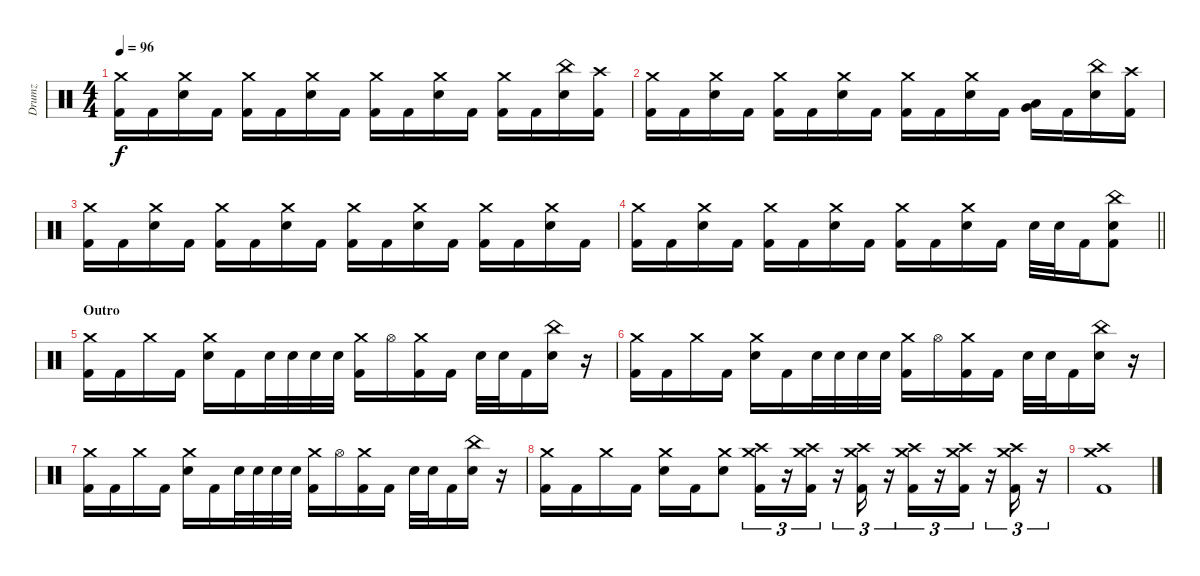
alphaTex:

\track ("Drumz" "Drumz") {instrument percussion}
\staff {score}
\articulation defaults
\ts (4 4)
\tempo 96
\clef neutral
\ks c
("Crash medium (hit)" "Kick (hit) 2").16{dy f} "Kick (hit) 2".16 ("Crash medium (hit)" "Electric Snare (hit)").16 "Kick (hit) 2".16 ("Crash medium (hit)" "Kick (hit) 2").16 "Kick (hit) 2".16 ("Crash medium (hit)" "Electric Snare (hit)").16 "Kick (hit) 2".16 ("Crash medium (hit)" "Kick (hit) 2").16 "Kick (hit) 2".16 ("Crash medium (hit)" "Electric Snare (hit)").16 "Kick (hit) 2".16 ("Crash medium (hit)" "Kick (hit) 2").16 "Kick (hit) 2".16 ("China (hit)" "Electric Snare (hit)").16 ("Crash high (hit)" "Kick (hit) 2").16 |
("Crash medium (hit)" "Kick (hit) 2").16 "Kick (hit) 2".16 ("Crash medium (hit)" "Electric Snare (hit)").16 "Kick (hit) 2".16 ("Crash medium (hit)" "Kick (hit) 2").16 "Kick (hit) 2".16 ("Crash medium (hit)" "Electric Snare (hit)").16 "Kick (hit) 2".16 ("Crash medium (hit)" "Kick (hit) 2").16 "Kick (hit) 2".16 ("Crash medium (hit)" "Electric Snare (hit)").16 "Kick (hit) 2".16 ("Very Low Tom (hit)" "Low Floor Tom (hit)").16 "Kick (hit) 2".16 ("China (hit)" "Electric Snare (hit)").16 ("Crash high (hit)" "Kick (hit) 2").16 |
("Crash medium (hit)" "Kick (hit) 2").16 "Kick (hit) 2".16 ("Crash medium (hit)" "Electric Snare (hit)").16 "Kick (hit) 2".16 ("Crash medium (hit)" "Kick (hit) 2").16 "Kick (hit) 2".16 ("Crash medium (hit)" "Electric Snare (hit)").16 "Kick (hit) 2".16 ("Crash medium (hit)" "Kick (hit) 2").16 "Kick (hit) 2".16 ("Crash medium (hit)" "Electric Snare (hit)").16 "Kick (hit) 2".16 ("Crash medium (hit)" "Kick (hit) 2").16 "Kick (hit) 2".16 ("Crash medium (hit)" "Electric Snare (hit)").16 "Kick (hit) 2".16 |
\barLineRight lightlight
("Crash medium (hit)" "Kick (hit) 2").16 "Kick (hit) 2".16 ("Crash medium (hit)" "Electric Snare (hit)").16 "Kick (hit) 2".16 ("Crash medium (hit)" "Kick (hit) 2").16 "Kick (hit) 2".16 ("Crash medium (hit)" "Electric Snare (hit)").16 "Kick (hit) 2".16 ("Crash medium (hit)" "Kick (hit) 2").16 "Kick (hit) 2".16 ("Crash medium (hit)" "Electric Snare (hit)").16 "Kick (hit) 2".16 "Electric Snare (hit)".32 "Electric Snare (hit)".32 "Kick (hit) 2".16 ("China (hit)" "Electric Snare (hit)" "Kick (hit) 2").8 |
\section ("" "Outro")
("Crash medium (hit)" "Kick (hit) 2").16 "Kick (hit) 2".16 "Crash medium (hit)".16 "Kick (hit) 2".16 ("Crash medium (hit)" "Electric Snare (hit)").16 "Kick (hit) 2".16 "Electric Snare (hit)".32 "Electric Snare (hit)".32 "Electric Snare (hit)".32 "Electric Snare (hit)".32 ("Crash medium (hit)" "Kick (hit) 2").16 "Hi-Hat (open)".16 ("Crash medium (hit)" "Kick (hit) 2").16 "Kick (hit) 2".16 "Electric Snare (hit)".32 "Electric Snare (hit)".32 "Kick (hit) 2".16 ("China (hit)" "Electric Snare (hit)").16 r.16 |
("Crash medium (hit)" "Kick (hit) 2").16 "Kick (hit) 2".16 "Crash medium (hit)".16 "Kick (hit) 2".16 ("Crash medium (hit)" "Electric Snare (hit)").16 "Kick (hit) 2".16 "Electric Snare (hit)".32 "Electric Snare (hit)".32 "Electric Snare (hit)".32 "Electric Snare (hit)".32 ("Crash medium (hit)" "Kick (hit) 2").16 "Hi-Hat (open)".16 ("Crash medium (hit)" "Kick (hit) 2").16 "Kick (hit) 2".16 "Electric Snare (hit)".32 "Electric Snare (hit)".32 "Kick (hit) 2".16 ("China (hit)" "Electric Snare (hit)").16 r.16 |
("Crash medium (hit)" "Kick (hit) 2").16 "Kick (hit) 2".16 "Crash medium (hit)".16 "Kick (hit) 2".16 ("Crash medium (hit)" "Electric Snare (hit)").16 "Kick (hit) 2".16 "Electric Snare (hit)".32 "Electric Snare (hit)".32 "Electric Snare (hit)".32 "Electric Snare (hit)".32 ("Crash medium (hit)" "Kick (hit) 2").16 "Hi-Hat (open)".16 ("Crash medium (hit)" "Kick (hit) 2").16 "Kick (hit) 2".16 "Electric Snare (hit)".32 "Electric Snare (hit)".32 "Kick (hit) 2".16 ("China (hit)" "Electric Snare (hit)").16 r.16 |
("Crash medium (hit)" "Kick (hit) 2").16 "Kick (hit) 2".16 "Crash medium (hit)".16 "Kick (hit) 2".16 ("Crash medium (hit)" "Electric Snare (hit)").16 "Kick (hit) 2".16 ("Crash medium (hit)" "Electric Snare (hit)").8 ("Crash medium (hit)" "Crash high (hit)" "Kick (hit) 2").16{tu (3 2)} r.16{tu (3 2)} ("Crash medium (hit)" "Crash high (hit)" "Kick (hit) 2").16{tu (3 2)} r.16{tu (3 2)} ("Crash medium (hit)" "Crash high (hit)" "Kick (hit) 2").16{tu (3 2)} r.16{tu (3 2)} ("Crash medium (hit)" "Crash high (hit)" "Kick (hit) 2").16{tu (3 2)} r.16{tu (3 2)} ("Crash medium (hit)" "Crash high (hit)" "Kick (hit) 2").16{tu (3 2)} r.16{tu (3 2)} ("Crash medium (hit)" "Crash high (hit)" "Kick (hit) 2").16{tu (3 2)} r.16{tu (3 2)} |
("Crash medium (hit)" "Crash high (hit)" "Kick (hit) 2").1
